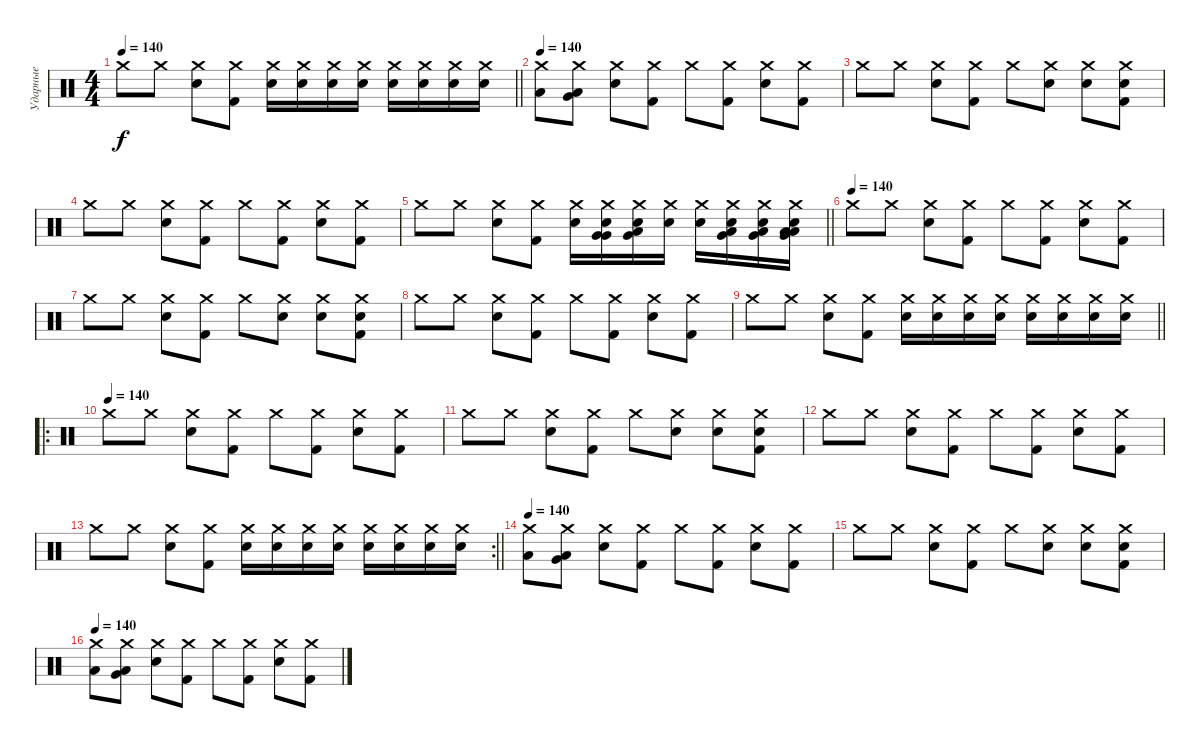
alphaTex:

\track ("Ударные" "Ударные") {instrument percussion}
\staff {score}
\articulation defaults
\ts (4 4)
\tempo 140
\clef neutral
\barLineRight lightlight
\ks c "Crash medium (hit)".8{dy f} "Crash medium (hit)".8
("Crash medium (hit)" "Snare (hit) 2").8 ("Crash medium (hit)" "Kick (hit) 2").8 ("Crash medium (hit)" "Snare (hit) 2").16 ("Crash medium (hit)" "Snare (hit) 2").16 ("Crash medium (hit)" "Snare (hit) 2").16 ("Crash medium (hit)" "Snare (hit) 2").16 ("Crash medium (hit)" "Snare (hit) 2").16 ("Crash medium (hit)" "Snare (hit) 2").16 ("Crash medium (hit)" "Snare (hit) 2").16 ("Crash medium (hit)" "Snare (hit) 2").16 |
\tempo 140
("Crash medium (hit)" "Low Tom (hit)").8 ("Crash medium (hit)" "Very Low Tom (hit)" "Low Floor Tom (hit)").8 ("Crash medium (hit)" "Snare (hit) 2").8 ("Crash medium (hit)" "Kick (hit) 2").8 "Crash medium (hit)".8 ("Crash medium (hit)" "Kick (hit) 2").8 ("Crash medium (hit)" "Snare (hit) 2").8 ("Crash medium (hit)" "Kick (hit) 2").8 |
"Crash medium (hit)".8 "Crash medium (hit)".8 ("Crash medium (hit)" "Snare (hit) 2").8 ("Crash medium (hit)" "Kick (hit) 2").8 "Crash medium (hit)".8 ("Crash medium (hit)" "Snare (hit) 2").8 ("Crash medium (hit)" "Snare (hit) 2").8 ("Crash medium (hit)" "Kick (hit) 2" "Snare (hit) 2").8 |
"Crash medium (hit)".8 "Crash medium (hit)".8 ("Crash medium (hit)" "Snare (hit) 2").8 ("Crash medium (hit)" "Kick (hit) 2").8 "Crash medium (hit)".8 ("Crash medium (hit)" "Kick (hit) 2").8 ("Crash medium (hit)" "Snare (hit) 2").8 ("Crash medium (hit)" "Kick (hit) 2").8 |
\barLineRight lightlight "Crash medium (hit)".8 "Crash medium (hit)".8
("Crash medium (hit)" "Snare (hit) 2").8 ("Crash medium (hit)" "Kick (hit) 2").8 ("Crash medium (hit)" "Snare (hit) 2").16 ("Crash medium (hit)" "Snare (hit) 2" "Very Low Tom (hit)" "Very Low Tom (hit)").16 ("Crash medium (hit)" "Snare (hit) 2" "Very Low Tom (hit)" "Low Tom (hit)").16 ("Crash medium (hit)" "Snare (hit) 2").16 ("Crash medium (hit)" "Snare (hit) 2").16 ("Crash medium (hit)" "Snare (hit) 2" "Very Low Tom (hit)" "Low Tom (hit)").16 ("Crash medium (hit)" "Snare (hit) 2" "Very Low Tom (hit)" "Low Tom (hit)").16 ("Crash medium (hit)" "Snare (hit) 2" "Very Low Tom (hit)" "Low Tom (hit)" "Low Floor Tom (hit)").16 |
\tempo (140)
"Crash medium (hit)".8 "Crash medium (hit)".8 ("Crash medium (hit)" "Snare (hit) 2").8 ("Crash medium (hit)" "Kick (hit) 2").8 "Crash medium (hit)".8 ("Crash medium (hit)" "Kick (hit) 2").8 ("Crash medium (hit)" "Snare (hit) 2").8 ("Crash medium (hit)" "Kick (hit) 2").8 |
"Crash medium (hit)".8 "Crash medium (hit)".8 ("Crash medium (hit)" "Snare (hit) 2").8 ("Crash medium (hit)" "Kick (hit) 2").8 "Crash medium (hit)".8 ("Crash medium (hit)" "Snare (hit) 2").8 ("Crash medium (hit)" "Snare (hit) 2").8 ("Crash medium (hit)" "Kick (hit) 2" "Snare (hit) 2").8 |
"Crash medium (hit)".8 "Crash medium (hit)".8 ("Crash medium (hit)" "Snare (hit) 2").8 ("Crash medium (hit)" "Kick (hit) 2").8 "Crash medium (hit)".8 ("Crash medium (hit)" "Kick (hit) 2").8 ("Crash medium (hit)" "Snare (hit) 2").8 ("Crash medium (hit)" "Kick (hit) 2").8 |
\barLineRight lightlight "Crash medium (hit)".8 "Crash medium (hit)".8
("Crash medium (hit)" "Snare (hit) 2").8 ("Crash medium (hit)" "Kick (hit) 2").8 ("Crash medium (hit)" "Snare (hit) 2").16 ("Crash medium (hit)" "Snare (hit) 2").16 ("Crash medium (hit)" "Snare (hit) 2").16 ("Crash medium (hit)" "Snare (hit) 2").16 ("Crash medium (hit)" "Snare (hit) 2").16 ("Crash medium (hit)" "Snare (hit) 2").16 ("Crash medium (hit)" "Snare (hit) 2").16 ("Crash medium (hit)" "Snare (hit) 2").16 |
\ro
\tempo (140)
"Crash medium (hit)".8 "Crash medium (hit)".8 ("Crash medium (hit)" "Snare (hit) 2").8 ("Crash medium (hit)" "Kick (hit) 2").8 "Crash medium (hit)".8 ("Crash medium (hit)" "Kick (hit) 2").8 ("Crash medium (hit)" "Snare (hit) 2").8 ("Crash medium (hit)" "Kick (hit) 2").8 |
"Crash medium (hit)".8 "Crash medium (hit)".8 ("Crash medium (hit)" "Snare (hit) 2").8 ("Crash medium (hit)" "Kick (hit) 2").8 "Crash medium (hit)".8 ("Crash medium (hit)" "Snare (hit) 2").8 ("Crash medium (hit)" "Snare (hit) 2").8 ("Crash medium (hit)" "Kick (hit) 2" "Snare (hit) 2").8 |
"Crash medium (hit)".8 "Crash medium (hit)".8 ("Crash medium (hit)" "Snare (hit) 2").8 ("Crash medium (hit)" "Kick (hit) 2").8 "Crash medium (hit)".8 ("Crash medium (hit)" "Kick (hit) 2").8 ("Crash medium (hit)" "Snare (hit) 2").8 ("Crash medium (hit)" "Kick (hit) 2").8 |
\rc 2
\barLineRight lightlight "Crash medium (hit)".8 "Crash medium (hit)".8
("Crash medium (hit)" "Snare (hit) 2").8 ("Crash medium (hit)" "Kick (hit) 2").8 ("Crash medium (hit)" "Snare (hit) 2").16 ("Crash medium (hit)" "Snare (hit) 2").16 ("Crash medium (hit)" "Snare (hit) 2").16 ("Crash medium (hit)" "Snare (hit) 2").16 ("Crash medium (hit)" "Snare (hit) 2").16 ("Crash medium (hit)" "Snare (hit) 2").16 ("Crash medium (hit)" "Snare (hit) 2").16 ("Crash medium (hit)" "Snare (hit) 2").16 |
\tempo 140
("Crash medium (hit)" "Low Tom (hit)").8{volume 12} ("Crash medium (hit)" "Very Low Tom (hit)" "Low Floor Tom (hit)").8 ("Crash medium (hit)" "Snare (hit) 2").8 ("Crash medium (hit)" "Kick (hit) 2").8 "Crash medium (hit)".8 ("Crash medium (hit)" "Kick (hit) 2").8 ("Crash medium (hit)" "Snare (hit) 2").8 ("Crash medium (hit)" "Kick (hit) 2").8 |
"Crash medium (hit)".8 "Crash medium (hit)".8 ("Crash medium (hit)" "Snare (hit) 2").8 ("Crash medium (hit)" "Kick (hit) 2").8 "Crash medium (hit)".8 ("Crash medium (hit)" "Snare (hit) 2").8 ("Crash medium (hit)" "Snare (hit) 2").8 ("Crash medium (hit)" "Kick (hit) 2" "Snare (hit) 2").8 |
\tempo 140
("Crash medium (hit)" "Low Tom (hit)").8 ("Crash medium (hit)" "Very Low Tom (hit)" "Low Floor Tom (hit)").8 ("Crash medium (hit)" "Snare (hit) 2").8 ("Crash medium (hit)" "Kick (hit) 2").8 "Crash medium (hit)".8 ("Crash medium (hit)" "Kick (hit) 2").8 ("Crash medium (hit)" "Snare (hit) 2").8 ("Crash medium (hit)" "Kick (hit) 2").8
